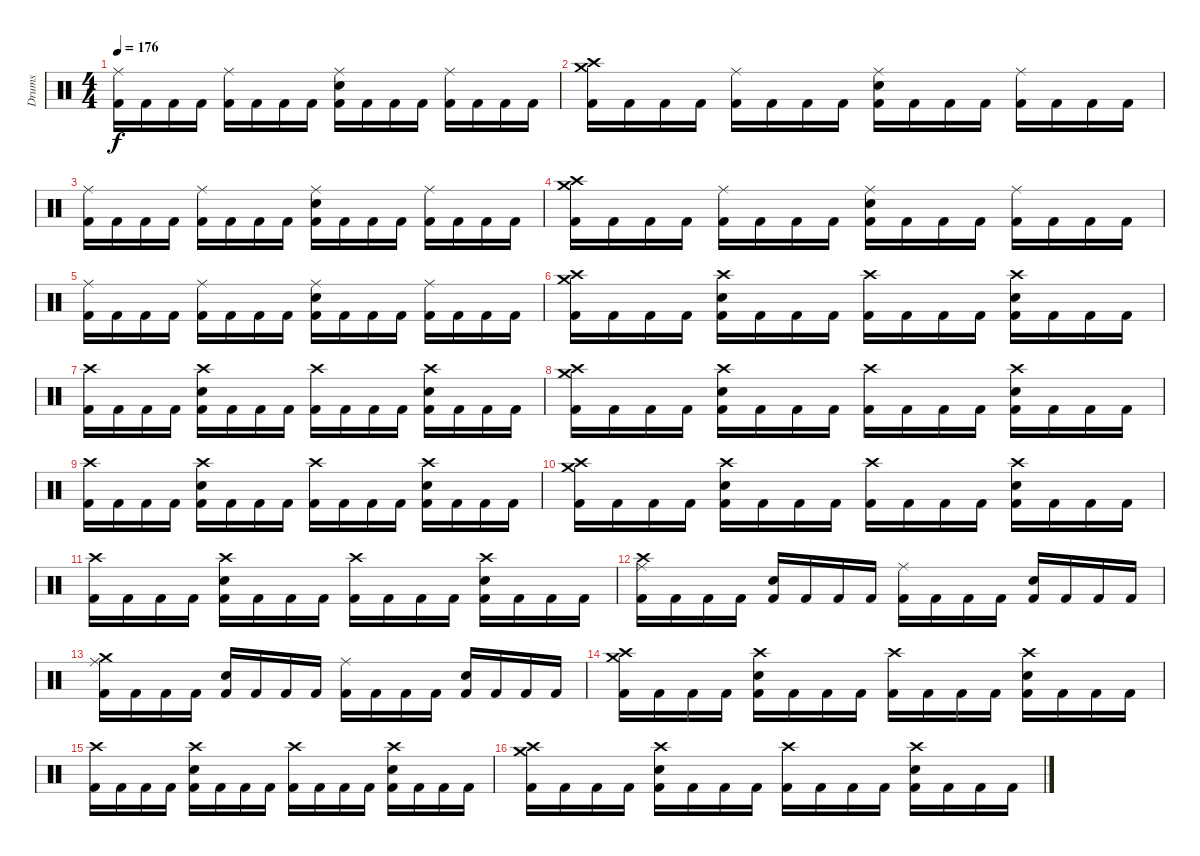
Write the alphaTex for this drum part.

\track ("Drums" "Drums") {instrument percussion}
\staff {score}
\articulation defaults
\ts (4 4)
\tempo 176
\clef neutral
\ks c
("Ride (middle)" "Kick (hit) 2").16{dy f} "Kick (hit) 2".16 "Kick (hit) 2".16 "Kick (hit) 2".16 ("Ride (middle)" "Kick (hit) 2").16 "Kick (hit) 2".16 "Kick (hit) 2".16 "Kick (hit) 2".16 ("Ride (middle)" "Snare (hit) 2" "Kick (hit) 2").16 "Kick (hit) 2".16 "Kick (hit) 2".16 "Kick (hit) 2".16 ("Ride (middle)" "Kick (hit) 2").16 "Kick (hit) 2".16 "Kick (hit) 2".16 "Kick (hit) 2".16 |
("Crash medium (hit)" "Crash high (hit)" "Kick (hit) 2").16 "Kick (hit) 2".16 "Kick (hit) 2".16 "Kick (hit) 2".16 ("Ride (middle)" "Kick (hit) 2").16 "Kick (hit) 2".16 "Kick (hit) 2".16 "Kick (hit) 2".16 ("Ride (middle)" "Snare (hit) 2" "Kick (hit) 2").16 "Kick (hit) 2".16 "Kick (hit) 2".16 "Kick (hit) 2".16 ("Ride (middle)" "Kick (hit) 2").16 "Kick (hit) 2".16 "Kick (hit) 2".16 "Kick (hit) 2".16 |
("Ride (middle)" "Kick (hit) 2").16 "Kick (hit) 2".16 "Kick (hit) 2".16 "Kick (hit) 2".16 ("Ride (middle)" "Kick (hit) 2").16 "Kick (hit) 2".16 "Kick (hit) 2".16 "Kick (hit) 2".16 ("Ride (middle)" "Snare (hit) 2" "Kick (hit) 2").16 "Kick (hit) 2".16 "Kick (hit) 2".16 "Kick (hit) 2".16 ("Ride (middle)" "Kick (hit) 2").16 "Kick (hit) 2".16 "Kick (hit) 2".16 "Kick (hit) 2".16 |
("Crash medium (hit)" "Crash high (hit)" "Kick (hit) 2").16 "Kick (hit) 2".16 "Kick (hit) 2".16 "Kick (hit) 2".16 ("Ride (middle)" "Kick (hit) 2").16 "Kick (hit) 2".16 "Kick (hit) 2".16 "Kick (hit) 2".16 ("Ride (middle)" "Snare (hit) 2" "Kick (hit) 2").16 "Kick (hit) 2".16 "Kick (hit) 2".16 "Kick (hit) 2".16 ("Ride (middle)" "Kick (hit) 2").16 "Kick (hit) 2".16 "Kick (hit) 2".16 "Kick (hit) 2".16 |
("Ride (middle)" "Kick (hit) 2").16 "Kick (hit) 2".16 "Kick (hit) 2".16 "Kick (hit) 2".16 ("Ride (middle)" "Kick (hit) 2").16 "Kick (hit) 2".16 "Kick (hit) 2".16 "Kick (hit) 2".16 ("Ride (middle)" "Snare (hit) 2" "Kick (hit) 2").16 "Kick (hit) 2".16 "Kick (hit) 2".16 "Kick (hit) 2".16 ("Ride (middle)" "Kick (hit) 2").16 "Kick (hit) 2".16 "Kick (hit) 2".16 "Kick (hit) 2".16 |
("Crash medium (hit)" "Crash high (hit)" "Kick (hit) 2").16 "Kick (hit) 2".16 "Kick (hit) 2".16 "Kick (hit) 2".16 ("Crash high (hit)" "Snare (hit) 2" "Kick (hit) 2").16 "Kick (hit) 2".16 "Kick (hit) 2".16 "Kick (hit) 2".16 ("Crash high (hit)" "Kick (hit) 2").16 "Kick (hit) 2".16 "Kick (hit) 2".16 "Kick (hit) 2".16 ("Crash high (hit)" "Snare (hit) 2" "Kick (hit) 2").16 "Kick (hit) 2".16 "Kick (hit) 2".16 "Kick (hit) 2".16 |
("Crash high (hit)" "Kick (hit) 2").16 "Kick (hit) 2".16 "Kick (hit) 2".16 "Kick (hit) 2".16 ("Crash high (hit)" "Snare (hit) 2" "Kick (hit) 2").16 "Kick (hit) 2".16 "Kick (hit) 2".16 "Kick (hit) 2".16 ("Crash high (hit)" "Kick (hit) 2").16 "Kick (hit) 2".16 "Kick (hit) 2".16 "Kick (hit) 2".16 ("Crash high (hit)" "Snare (hit) 2" "Kick (hit) 2").16 "Kick (hit) 2".16 "Kick (hit) 2".16 "Kick (hit) 2".16 |
("Crash medium (hit)" "Crash high (hit)" "Kick (hit) 2").16 "Kick (hit) 2".16 "Kick (hit) 2".16 "Kick (hit) 2".16 ("Crash high (hit)" "Snare (hit) 2" "Kick (hit) 2").16 "Kick (hit) 2".16 "Kick (hit) 2".16 "Kick (hit) 2".16 ("Crash high (hit)" "Kick (hit) 2").16 "Kick (hit) 2".16 "Kick (hit) 2".16 "Kick (hit) 2".16 ("Crash high (hit)" "Snare (hit) 2" "Kick (hit) 2").16 "Kick (hit) 2".16 "Kick (hit) 2".16 "Kick (hit) 2".16 |
("Crash high (hit)" "Kick (hit) 2").16 "Kick (hit) 2".16 "Kick (hit) 2".16 "Kick (hit) 2".16 ("Crash high (hit)" "Snare (hit) 2" "Kick (hit) 2").16 "Kick (hit) 2".16 "Kick (hit) 2".16 "Kick (hit) 2".16 ("Crash high (hit)" "Kick (hit) 2").16 "Kick (hit) 2".16 "Kick (hit) 2".16 "Kick (hit) 2".16 ("Crash high (hit)" "Snare (hit) 2" "Kick (hit) 2").16 "Kick (hit) 2".16 "Kick (hit) 2".16 "Kick (hit) 2".16 |
("Crash medium (hit)" "Crash high (hit)" "Kick (hit) 2").16 "Kick (hit) 2".16 "Kick (hit) 2".16 "Kick (hit) 2".16 ("Crash high (hit)" "Snare (hit) 2" "Kick (hit) 2").16 "Kick (hit) 2".16 "Kick (hit) 2".16 "Kick (hit) 2".16 ("Crash high (hit)" "Kick (hit) 2").16 "Kick (hit) 2".16 "Kick (hit) 2".16 "Kick (hit) 2".16 ("Crash high (hit)" "Snare (hit) 2" "Kick (hit) 2").16 "Kick (hit) 2".16 "Kick (hit) 2".16 "Kick (hit) 2".16 |
("Crash high (hit)" "Kick (hit) 2").16 "Kick (hit) 2".16 "Kick (hit) 2".16 "Kick (hit) 2".16 ("Crash high (hit)" "Snare (hit) 2" "Kick (hit) 2").16 "Kick (hit) 2".16 "Kick (hit) 2".16 "Kick (hit) 2".16 ("Crash high (hit)" "Kick (hit) 2").16 "Kick (hit) 2".16 "Kick (hit) 2".16 "Kick (hit) 2".16 ("Crash high (hit)" "Snare (hit) 2" "Kick (hit) 2").16 "Kick (hit) 2".16 "Kick (hit) 2".16 "Kick (hit) 2".16 |
("Ride (middle)" "Crash high (hit)" "Kick (hit) 2").16 "Kick (hit) 2".16 "Kick (hit) 2".16 "Kick (hit) 2".16 ("Snare (hit) 2" "Kick (hit) 2").16 "Kick (hit) 2".16 "Kick (hit) 2".16 "Kick (hit) 2".16 ("Ride (middle)" "Kick (hit) 2").16 "Kick (hit) 2".16 "Kick (hit) 2".16 "Kick (hit) 2".16 ("Snare (hit) 2" "Kick (hit) 2").16 "Kick (hit) 2".16 "Kick (hit) 2".16 "Kick (hit) 2".16 |
("Ride (middle)" "Crash medium (hit)" "Kick (hit) 2").16 "Kick (hit) 2".16 "Kick (hit) 2".16 "Kick (hit) 2".16 ("Snare (hit) 2" "Kick (hit) 2").16 "Kick (hit) 2".16 "Kick (hit) 2".16 "Kick (hit) 2".16 ("Ride (middle)" "Kick (hit) 2").16 "Kick (hit) 2".16 "Kick (hit) 2".16 "Kick (hit) 2".16 ("Snare (hit) 2" "Kick (hit) 2").16 "Kick (hit) 2".16 "Kick (hit) 2".16 "Kick (hit) 2".16 |
("Crash medium (hit)" "Crash high (hit)" "Kick (hit) 2").16 "Kick (hit) 2".16 "Kick (hit) 2".16 "Kick (hit) 2".16 ("Crash high (hit)" "Snare (hit) 2" "Kick (hit) 2").16 "Kick (hit) 2".16 "Kick (hit) 2".16 "Kick (hit) 2".16 ("Crash high (hit)" "Kick (hit) 2").16 "Kick (hit) 2".16 "Kick (hit) 2".16 "Kick (hit) 2".16 ("Crash high (hit)" "Snare (hit) 2" "Kick (hit) 2").16 "Kick (hit) 2".16 "Kick (hit) 2".16 "Kick (hit) 2".16 |
("Crash high (hit)" "Kick (hit) 2").16 "Kick (hit) 2".16 "Kick (hit) 2".16 "Kick (hit) 2".16 ("Crash high (hit)" "Snare (hit) 2" "Kick (hit) 2").16 "Kick (hit) 2".16 "Kick (hit) 2".16 "Kick (hit) 2".16 ("Crash high (hit)" "Kick (hit) 2").16 "Kick (hit) 2".16 "Kick (hit) 2".16 "Kick (hit) 2".16 ("Crash high (hit)" "Snare (hit) 2" "Kick (hit) 2").16 "Kick (hit) 2".16 "Kick (hit) 2".16 "Kick (hit) 2".16 |
("Crash medium (hit)" "Crash high (hit)" "Kick (hit) 2").16 "Kick (hit) 2".16 "Kick (hit) 2".16 "Kick (hit) 2".16 ("Crash high (hit)" "Snare (hit) 2" "Kick (hit) 2").16 "Kick (hit) 2".16 "Kick (hit) 2".16 "Kick (hit) 2".16 ("Crash high (hit)" "Kick (hit) 2").16 "Kick (hit) 2".16 "Kick (hit) 2".16 "Kick (hit) 2".16 ("Crash high (hit)" "Snare (hit) 2" "Kick (hit) 2").16 "Kick (hit) 2".16 "Kick (hit) 2".16 "Kick (hit) 2".16
